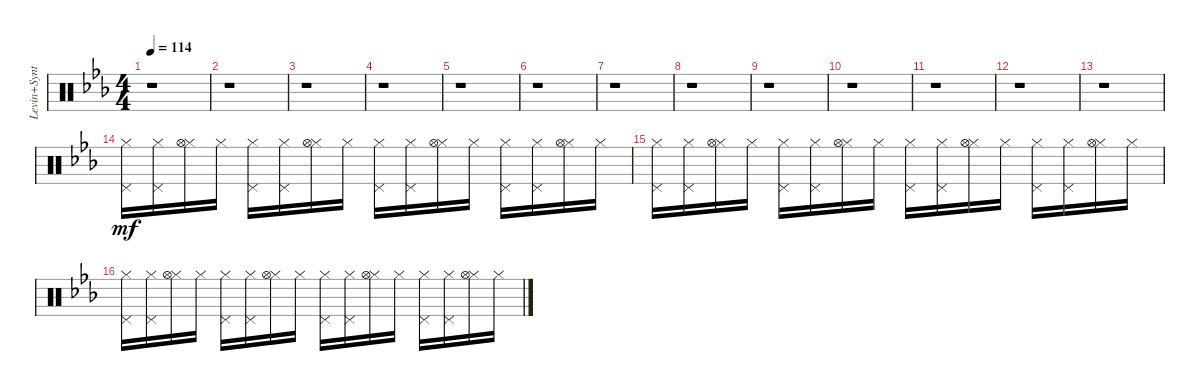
\track ("Levin+Synth" "Levin+Synt") {instrument percussion}
\staff {score}
\articulation defaults
\ts (4 4)
\tempo 114
\clef neutral
\ks eb
r.1{dy mf} |
r.1 |
r.1 |
r.1 |
r.1 |
r.1 |
r.1 |
r.1 |
r.1 |
r.1 |
r.1 |
r.1 |
r.1 |
("Hi-Hat (closed)" "Pedal Hi-Hat (hit)").16 ("Hi-Hat (closed)" "Pedal Hi-Hat (hit)").16 ("Hi-Hat (closed)" "Hi-Hat (open)").16 "Hi-Hat (closed)".16 ("Hi-Hat (closed)" "Pedal Hi-Hat (hit)").16 ("Hi-Hat (closed)" "Pedal Hi-Hat (hit)").16 ("Hi-Hat (closed)" "Hi-Hat (open)").16 "Hi-Hat (closed)".16 ("Hi-Hat (closed)" "Pedal Hi-Hat (hit)").16 ("Hi-Hat (closed)" "Pedal Hi-Hat (hit)").16 ("Hi-Hat (closed)" "Hi-Hat (open)").16 "Hi-Hat (closed)".16 ("Hi-Hat (closed)" "Pedal Hi-Hat (hit)").16 ("Hi-Hat (closed)" "Pedal Hi-Hat (hit)").16 ("Hi-Hat (closed)" "Hi-Hat (open)").16 "Hi-Hat (closed)".16 |
("Hi-Hat (closed)" "Pedal Hi-Hat (hit)").16 ("Hi-Hat (closed)" "Pedal Hi-Hat (hit)").16 ("Hi-Hat (closed)" "Hi-Hat (open)").16 "Hi-Hat (closed)".16 ("Hi-Hat (closed)" "Pedal Hi-Hat (hit)").16 ("Hi-Hat (closed)" "Pedal Hi-Hat (hit)").16 ("Hi-Hat (closed)" "Hi-Hat (open)").16 "Hi-Hat (closed)".16 ("Hi-Hat (closed)" "Pedal Hi-Hat (hit)").16 ("Hi-Hat (closed)" "Pedal Hi-Hat (hit)").16 ("Hi-Hat (closed)" "Hi-Hat (open)").16 "Hi-Hat (closed)".16 ("Hi-Hat (closed)" "Pedal Hi-Hat (hit)").16 ("Hi-Hat (closed)" "Pedal Hi-Hat (hit)").16 ("Hi-Hat (closed)" "Hi-Hat (open)").16 "Hi-Hat (closed)".16 |
("Hi-Hat (closed)" "Pedal Hi-Hat (hit)").16 ("Hi-Hat (closed)" "Pedal Hi-Hat (hit)").16 ("Hi-Hat (closed)" "Hi-Hat (open)").16 "Hi-Hat (closed)".16 ("Hi-Hat (closed)" "Pedal Hi-Hat (hit)").16 ("Hi-Hat (closed)" "Pedal Hi-Hat (hit)").16 ("Hi-Hat (closed)" "Hi-Hat (open)").16 "Hi-Hat (closed)".16 ("Hi-Hat (closed)" "Pedal Hi-Hat (hit)").16 ("Hi-Hat (closed)" "Pedal Hi-Hat (hit)").16 ("Hi-Hat (closed)" "Hi-Hat (open)").16 "Hi-Hat (closed)".16 ("Hi-Hat (closed)" "Pedal Hi-Hat (hit)").16 ("Hi-Hat (closed)" "Pedal Hi-Hat (hit)").16 ("Hi-Hat (closed)" "Hi-Hat (open)").16 "Hi-Hat (closed)".16
